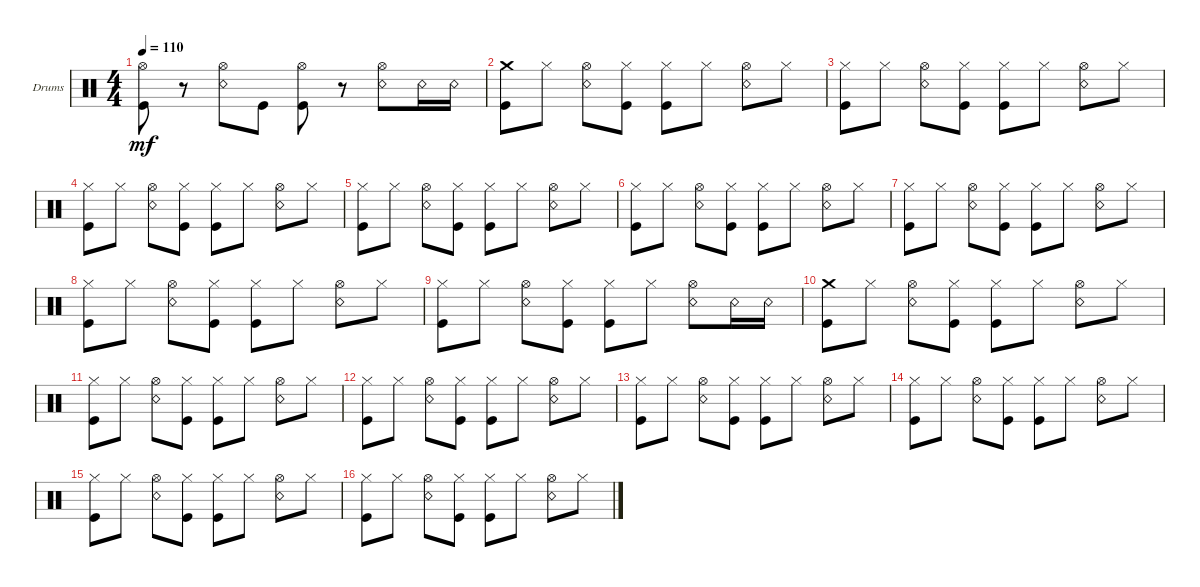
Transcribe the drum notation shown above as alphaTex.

\defaultSystemsLayout 4
\bracketExtendMode groupsimilarinstruments
\firstSystemTrackNameOrientation horizontal
\otherSystemsTrackNameOrientation horizontal
\track ("Drumkit" "Drums") {instrument percussion}
\staff {score}
\articulation defaults
\ts (4 4)
\tempo 110
\clef neutral
\ks c
("Kick (hit)" "Hi-Hat (open)").8{dy mf} r.8 ("Hi-Hat (open)" "Snare (rim shot)").8 "Kick (hit)".8 ("Hi-Hat (open)" "Kick (hit)").8 r.8 ("Hi-Hat (open)" "Snare (rim shot)").8 "Snare (rim shot)".16 "Snare (rim shot)".16 |
("Kick (hit)" "Crash medium (hit)").8 "Hi-Hat (closed)".8 ("Hi-Hat (open)" "Snare (rim shot)").8 ("Kick (hit)" "Hi-Hat (closed)").8 ("Hi-Hat (closed)" "Kick (hit)").8 "Hi-Hat (closed)".8 ("Hi-Hat (open)" "Snare (rim shot)").8 "Hi-Hat (closed)".8 |
("Kick (hit)" "Hi-Hat (closed)").8 "Hi-Hat (closed)".8 ("Hi-Hat (open)" "Snare (rim shot)").8 ("Kick (hit)" "Hi-Hat (closed)").8 ("Hi-Hat (closed)" "Kick (hit)").8 "Hi-Hat (closed)".8 ("Hi-Hat (open)" "Snare (rim shot)").8 "Hi-Hat (closed)".8 |
("Kick (hit)" "Hi-Hat (closed)").8 "Hi-Hat (closed)".8 ("Hi-Hat (open)" "Snare (rim shot)").8 ("Kick (hit)" "Hi-Hat (closed)").8 ("Hi-Hat (closed)" "Kick (hit)").8 "Hi-Hat (closed)".8 ("Hi-Hat (open)" "Snare (rim shot)").8 "Hi-Hat (closed)".8 |
("Kick (hit)" "Hi-Hat (closed)").8 "Hi-Hat (closed)".8 ("Hi-Hat (open)" "Snare (rim shot)").8 ("Kick (hit)" "Hi-Hat (closed)").8 ("Hi-Hat (closed)" "Kick (hit)").8 "Hi-Hat (closed)".8 ("Hi-Hat (open)" "Snare (rim shot)").8 "Hi-Hat (closed)".8 |
("Kick (hit)" "Hi-Hat (closed)").8 "Hi-Hat (closed)".8 ("Hi-Hat (open)" "Snare (rim shot)").8 ("Kick (hit)" "Hi-Hat (closed)").8 ("Hi-Hat (closed)" "Kick (hit)").8 "Hi-Hat (closed)".8 ("Hi-Hat (open)" "Snare (rim shot)").8 "Hi-Hat (closed)".8 |
("Kick (hit)" "Hi-Hat (closed)").8 "Hi-Hat (closed)".8 ("Hi-Hat (open)" "Snare (rim shot)").8 ("Kick (hit)" "Hi-Hat (closed)").8 ("Hi-Hat (closed)" "Kick (hit)").8 "Hi-Hat (closed)".8 ("Hi-Hat (open)" "Snare (rim shot)").8 "Hi-Hat (closed)".8 |
("Kick (hit)" "Hi-Hat (closed)").8 "Hi-Hat (closed)".8 ("Hi-Hat (open)" "Snare (rim shot)").8 ("Kick (hit)" "Hi-Hat (closed)").8 ("Hi-Hat (closed)" "Kick (hit)").8 "Hi-Hat (closed)".8 ("Hi-Hat (open)" "Snare (rim shot)").8 "Hi-Hat (closed)".8 |
("Kick (hit)" "Hi-Hat (closed)").8 "Hi-Hat (closed)".8 ("Hi-Hat (open)" "Snare (rim shot)").8 ("Kick (hit)" "Hi-Hat (closed)").8 ("Hi-Hat (closed)" "Kick (hit)").8 "Hi-Hat (closed)".8 ("Hi-Hat (open)" "Snare (rim shot)").8 "Snare (rim shot)".16 "Snare (rim shot)".16 |
("Kick (hit)" "Crash medium (hit)").8 "Hi-Hat (closed)".8 ("Hi-Hat (open)" "Snare (rim shot)").8 ("Kick (hit)" "Hi-Hat (closed)").8 ("Hi-Hat (closed)" "Kick (hit)").8 "Hi-Hat (closed)".8 ("Hi-Hat (open)" "Snare (rim shot)").8 "Hi-Hat (closed)".8 |
("Kick (hit)" "Hi-Hat (closed)").8 "Hi-Hat (closed)".8 ("Hi-Hat (open)" "Snare (rim shot)").8 ("Kick (hit)" "Hi-Hat (closed)").8 ("Hi-Hat (closed)" "Kick (hit)").8 "Hi-Hat (closed)".8 ("Hi-Hat (open)" "Snare (rim shot)").8 "Hi-Hat (closed)".8 |
("Kick (hit)" "Hi-Hat (closed)").8 "Hi-Hat (closed)".8 ("Hi-Hat (open)" "Snare (rim shot)").8 ("Kick (hit)" "Hi-Hat (closed)").8 ("Hi-Hat (closed)" "Kick (hit)").8 "Hi-Hat (closed)".8 ("Hi-Hat (open)" "Snare (rim shot)").8 "Hi-Hat (closed)".8 |
("Kick (hit)" "Hi-Hat (closed)").8 "Hi-Hat (closed)".8 ("Hi-Hat (open)" "Snare (rim shot)").8 ("Kick (hit)" "Hi-Hat (closed)").8 ("Hi-Hat (closed)" "Kick (hit)").8 "Hi-Hat (closed)".8 ("Hi-Hat (open)" "Snare (rim shot)").8 "Hi-Hat (closed)".8 |
("Kick (hit)" "Hi-Hat (closed)").8 "Hi-Hat (closed)".8 ("Hi-Hat (open)" "Snare (rim shot)").8 ("Kick (hit)" "Hi-Hat (closed)").8 ("Hi-Hat (closed)" "Kick (hit)").8 "Hi-Hat (closed)".8 ("Hi-Hat (open)" "Snare (rim shot)").8 "Hi-Hat (closed)".8 |
("Kick (hit)" "Hi-Hat (closed)").8 "Hi-Hat (closed)".8 ("Hi-Hat (open)" "Snare (rim shot)").8 ("Kick (hit)" "Hi-Hat (closed)").8 ("Hi-Hat (closed)" "Kick (hit)").8 "Hi-Hat (closed)".8 ("Hi-Hat (open)" "Snare (rim shot)").8 "Hi-Hat (closed)".8 |
("Kick (hit)" "Hi-Hat (closed)").8 "Hi-Hat (closed)".8 ("Hi-Hat (open)" "Snare (rim shot)").8 ("Kick (hit)" "Hi-Hat (closed)").8 ("Hi-Hat (closed)" "Kick (hit)").8 "Hi-Hat (closed)".8 ("Hi-Hat (open)" "Snare (rim shot)").8 "Hi-Hat (closed)".8
